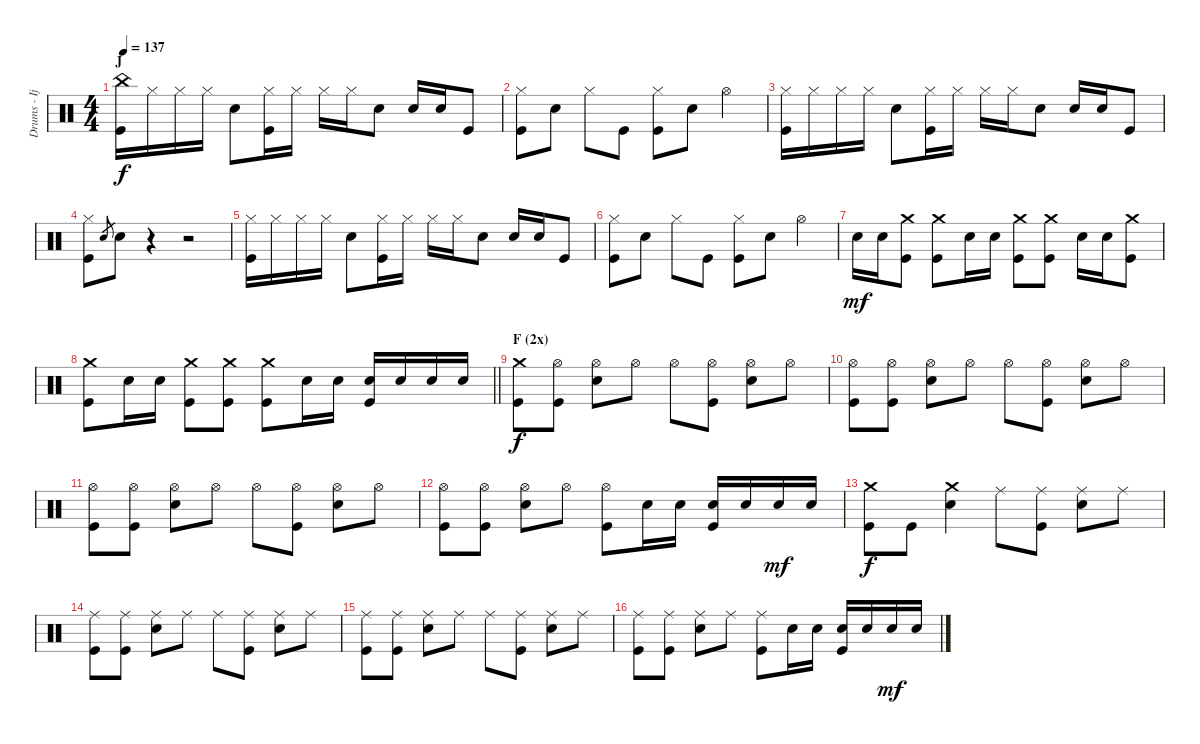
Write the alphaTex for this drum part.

\track ("Drums - Ijichi" "Drums - Ij") {instrument percussion}
\staff {score}
\articulation defaults
\ts (4 4)
\section ("" "J")
\tempo 137
\clef neutral
\ks c
("China (hit)" "Kick (hit)").16{dy f} "Hi-Hat (closed)".16 "Hi-Hat (closed)".16 "Hi-Hat (closed)".16 "Electric Snare (hit)".8 ("Hi-Hat (closed)" "Kick (hit)").16 "Hi-Hat (closed)".16 "Hi-Hat (closed)".16 "Hi-Hat (closed)".16 "Electric Snare (hit)".8 "Electric Snare (hit)".16 "Electric Snare (hit)".16 "Kick (hit)".8 |
("Hi-Hat (closed)" "Kick (hit)").8 "Electric Snare (hit)".8 "Hi-Hat (closed)".8 "Kick (hit)".8 ("Hi-Hat (closed)" "Kick (hit)").8 "Electric Snare (hit)".8 "Hi-Hat (open)".4 |
("Hi-Hat (closed)" "Kick (hit)").16 "Hi-Hat (closed)".16 "Hi-Hat (closed)".16 "Hi-Hat (closed)".16 "Electric Snare (hit)".8 ("Hi-Hat (closed)" "Kick (hit)").16 "Hi-Hat (closed)".16 "Hi-Hat (closed)".16 "Hi-Hat (closed)".16 "Electric Snare (hit)".8 "Electric Snare (hit)".16 "Electric Snare (hit)".16 "Kick (hit)".8 |
("Hi-Hat (closed)" "Kick (hit)").8 "Electric Snare (hit)".8{gr} "Electric Snare (hit)".8 r.4 r.2 |
("Hi-Hat (closed)" "Kick (hit)").16 "Hi-Hat (closed)".16 "Hi-Hat (closed)".16 "Hi-Hat (closed)".16 "Electric Snare (hit)".8 ("Hi-Hat (closed)" "Kick (hit)").16 "Hi-Hat (closed)".16 "Hi-Hat (closed)".16 "Hi-Hat (closed)".16 "Electric Snare (hit)".8 "Electric Snare (hit)".16 "Electric Snare (hit)".16 "Kick (hit)".8 |
("Hi-Hat (closed)" "Kick (hit)").8 "Electric Snare (hit)".8 "Hi-Hat (closed)".8 "Kick (hit)".8 ("Hi-Hat (closed)" "Kick (hit)").8 "Electric Snare (hit)".8 "Hi-Hat (open)".4 |
"Electric Snare (hit)".16{dy mf} "Electric Snare (hit)".16 ("Crash medium (hit)" "Kick (hit)").8 ("Crash medium (hit)" "Kick (hit)").8 "Electric Snare (hit)".16 "Electric Snare (hit)".16 ("Crash medium (hit)" "Kick (hit)").8 ("Crash medium (hit)" "Kick (hit)").8 "Electric Snare (hit)".16 "Electric Snare (hit)".16 ("Crash medium (hit)" "Kick (hit)").8 |
\barLineRight lightlight
("Crash medium (hit)" "Kick (hit)").8 "Electric Snare (hit)".16 "Electric Snare (hit)".16 ("Crash medium (hit)" "Kick (hit)").8 ("Crash medium (hit)" "Kick (hit)").8 ("Crash medium (hit)" "Kick (hit)").8 "Electric Snare (hit)".16 "Electric Snare (hit)".16 ("Electric Snare (hit)" "Kick (hit)").16 "Electric Snare (hit)".16 "Electric Snare (hit)".16 "Electric Snare (hit)".16 |
\section ("" "F (2x)")
("Crash medium (hit)" "Kick (hit)").8{dy f} ("Hi-Hat (open)" "Kick (hit)").8 ("Hi-Hat (open)" "Electric Snare (hit)").8 "Hi-Hat (open)".8 "Hi-Hat (open)".8 ("Hi-Hat (open)" "Kick (hit)").8 ("Hi-Hat (open)" "Electric Snare (hit)").8 "Hi-Hat (open)".8 |
("Hi-Hat (open)" "Kick (hit)").8 ("Hi-Hat (open)" "Kick (hit)").8 ("Hi-Hat (open)" "Electric Snare (hit)").8 "Hi-Hat (open)".8 "Hi-Hat (open)".8 ("Hi-Hat (open)" "Kick (hit)").8 ("Hi-Hat (open)" "Electric Snare (hit)").8 "Hi-Hat (open)".8 |
("Hi-Hat (open)" "Kick (hit)").8 ("Hi-Hat (open)" "Kick (hit)").8 ("Hi-Hat (open)" "Electric Snare (hit)").8 "Hi-Hat (open)".8 "Hi-Hat (open)".8 ("Hi-Hat (open)" "Kick (hit)").8 ("Hi-Hat (open)" "Electric Snare (hit)").8 "Hi-Hat (open)".8 |
("Hi-Hat (open)" "Kick (hit)").8 ("Hi-Hat (open)" "Kick (hit)").8 ("Hi-Hat (open)" "Electric Snare (hit)").8 "Hi-Hat (open)".8 ("Hi-Hat (open)" "Kick (hit)").8 "Electric Snare (hit)".16 "Electric Snare (hit)".16 ("Electric Snare (hit)" "Kick (hit)").16 "Electric Snare (hit)".16 "Electric Snare (hit)".16{dy mf} "Electric Snare (hit)".16 |
("Crash medium (hit)" "Kick (hit)").8{dy f} "Kick (hit)".8 ("Crash medium (hit)" "Electric Snare (hit)").4 "Ride (middle)".8 ("Ride (middle)" "Kick (hit)").8 ("Ride (middle)" "Electric Snare (hit)").8 "Ride (middle)".8 |
("Ride (middle)" "Kick (hit)").8 ("Ride (middle)" "Kick (hit)").8 ("Ride (middle)" "Electric Snare (hit)").8 "Ride (middle)".8 "Ride (middle)".8 ("Ride (middle)" "Kick (hit)").8 ("Ride (middle)" "Electric Snare (hit)").8 "Ride (middle)".8 |
("Ride (middle)" "Kick (hit)").8 ("Ride (middle)" "Kick (hit)").8 ("Ride (middle)" "Electric Snare (hit)").8 "Ride (middle)".8 "Ride (middle)".8 ("Ride (middle)" "Kick (hit)").8 ("Ride (middle)" "Electric Snare (hit)").8 "Ride (middle)".8 |
("Ride (middle)" "Kick (hit)").8 ("Ride (middle)" "Kick (hit)").8 ("Ride (middle)" "Electric Snare (hit)").8 "Ride (middle)".8 ("Ride (middle)" "Kick (hit)").8 "Electric Snare (hit)".16 "Electric Snare (hit)".16 ("Electric Snare (hit)" "Kick (hit)").16 "Electric Snare (hit)".16 "Electric Snare (hit)".16{dy mf} "Electric Snare (hit)".16
